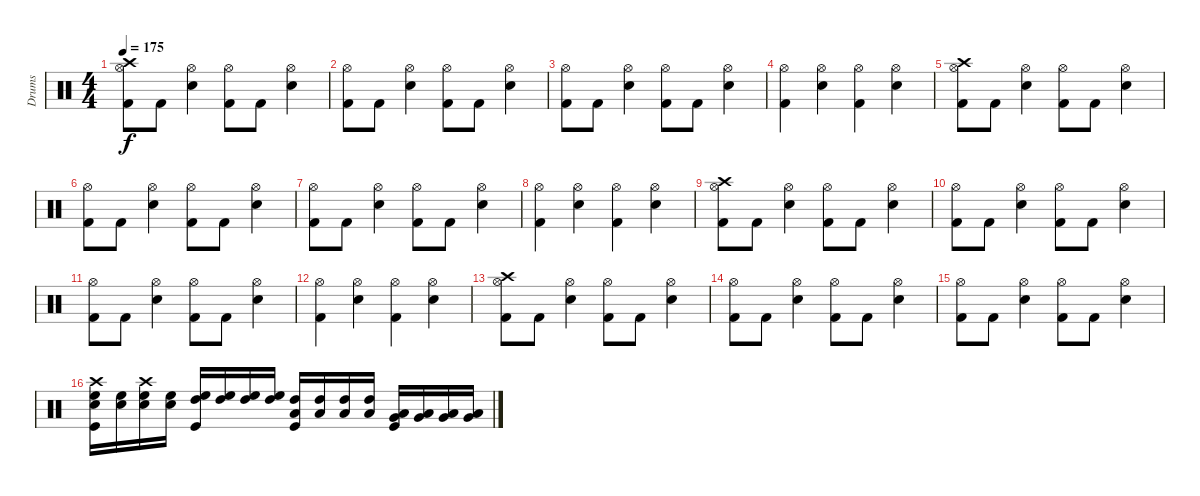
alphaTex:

\track ("Drums" "Drums") {instrument percussion}
\staff {score}
\articulation defaults
\ts (4 4)
\tempo 175
\clef neutral
\ks c
("Crash high (hit)" "Hi-Hat (open)" "Kick (hit) 2").8{dy f} "Kick (hit) 2".8 ("Hi-Hat (open)" "Electric Snare (hit)").4 ("Hi-Hat (open)" "Kick (hit) 2").8 "Kick (hit) 2".8 ("Hi-Hat (open)" "Electric Snare (hit)").4 |
("Hi-Hat (open)" "Kick (hit) 2").8 "Kick (hit) 2".8 ("Hi-Hat (open)" "Electric Snare (hit)").4 ("Hi-Hat (open)" "Kick (hit) 2").8 "Kick (hit) 2".8 ("Hi-Hat (open)" "Electric Snare (hit)").4 |
("Hi-Hat (open)" "Kick (hit) 2").8 "Kick (hit) 2".8 ("Hi-Hat (open)" "Electric Snare (hit)").4 ("Hi-Hat (open)" "Kick (hit) 2").8 "Kick (hit) 2".8 ("Hi-Hat (open)" "Electric Snare (hit)").4 |
("Hi-Hat (open)" "Kick (hit) 2").4 ("Hi-Hat (open)" "Electric Snare (hit)").4 ("Hi-Hat (open)" "Kick (hit) 2").4 ("Hi-Hat (open)" "Electric Snare (hit)").4 |
("Crash high (hit)" "Hi-Hat (open)" "Kick (hit) 2").8 "Kick (hit) 2".8 ("Hi-Hat (open)" "Electric Snare (hit)").4 ("Hi-Hat (open)" "Kick (hit) 2").8 "Kick (hit) 2".8 ("Hi-Hat (open)" "Electric Snare (hit)").4 |
("Hi-Hat (open)" "Kick (hit) 2").8 "Kick (hit) 2".8 ("Hi-Hat (open)" "Electric Snare (hit)").4 ("Hi-Hat (open)" "Kick (hit) 2").8 "Kick (hit) 2".8 ("Hi-Hat (open)" "Electric Snare (hit)").4 |
("Hi-Hat (open)" "Kick (hit) 2").8 "Kick (hit) 2".8 ("Hi-Hat (open)" "Electric Snare (hit)").4 ("Hi-Hat (open)" "Kick (hit) 2").8 "Kick (hit) 2".8 ("Hi-Hat (open)" "Electric Snare (hit)").4 |
("Hi-Hat (open)" "Kick (hit) 2").4 ("Hi-Hat (open)" "Electric Snare (hit)").4 ("Hi-Hat (open)" "Kick (hit) 2").4 ("Hi-Hat (open)" "Electric Snare (hit)").4 |
("Crash high (hit)" "Hi-Hat (open)" "Kick (hit) 2").8 "Kick (hit) 2".8 ("Hi-Hat (open)" "Electric Snare (hit)").4 ("Hi-Hat (open)" "Kick (hit) 2").8 "Kick (hit) 2".8 ("Hi-Hat (open)" "Electric Snare (hit)").4 |
("Hi-Hat (open)" "Kick (hit) 2").8 "Kick (hit) 2".8 ("Hi-Hat (open)" "Electric Snare (hit)").4 ("Hi-Hat (open)" "Kick (hit) 2").8 "Kick (hit) 2".8 ("Hi-Hat (open)" "Electric Snare (hit)").4 |
("Hi-Hat (open)" "Kick (hit) 2").8 "Kick (hit) 2".8 ("Hi-Hat (open)" "Electric Snare (hit)").4 ("Hi-Hat (open)" "Kick (hit) 2").8 "Kick (hit) 2".8 ("Hi-Hat (open)" "Electric Snare (hit)").4 |
("Hi-Hat (open)" "Kick (hit) 2").4 ("Hi-Hat (open)" "Electric Snare (hit)").4 ("Hi-Hat (open)" "Kick (hit) 2").4 ("Hi-Hat (open)" "Electric Snare (hit)").4 |
("Crash high (hit)" "Hi-Hat (open)" "Kick (hit) 2").8 "Kick (hit) 2".8 ("Hi-Hat (open)" "Electric Snare (hit)").4 ("Hi-Hat (open)" "Kick (hit) 2").8 "Kick (hit) 2".8 ("Hi-Hat (open)" "Electric Snare (hit)").4 |
("Hi-Hat (open)" "Kick (hit) 2").8 "Kick (hit) 2".8 ("Hi-Hat (open)" "Electric Snare (hit)").4 ("Hi-Hat (open)" "Kick (hit) 2").8 "Kick (hit) 2".8 ("Hi-Hat (open)" "Electric Snare (hit)").4 |
("Hi-Hat (open)" "Kick (hit) 2").8 "Kick (hit) 2".8 ("Hi-Hat (open)" "Electric Snare (hit)").4 ("Hi-Hat (open)" "Kick (hit) 2").8 "Kick (hit) 2".8 ("Hi-Hat (open)" "Electric Snare (hit)").4 |
("Kick (hit)" "Electric Snare (hit)" "Crash high (hit)" "High Floor Tom (hit)").16 ("Electric Snare (hit)" "High Floor Tom (hit)").16 ("Electric Snare (hit)" "Crash high (hit)" "High Floor Tom (hit)").16 ("Electric Snare (hit)" "High Floor Tom (hit)").16 ("Kick (hit)" "High Tom (hit)" "High Floor Tom (hit)").16 ("High Tom (hit)" "High Floor Tom (hit)").16 ("High Tom (hit)" "High Floor Tom (hit)").16 ("High Tom (hit)" "High Floor Tom (hit)").16 ("Kick (hit)" "Low Tom (hit)" "High Tom (hit)").16 ("Low Tom (hit)" "High Tom (hit)").16 ("Low Tom (hit)" "High Tom (hit)").16 ("Low Tom (hit)" "High Tom (hit)").16 ("Kick (hit)" "Very Low Tom (hit)" "Low Tom (hit)").16 ("Very Low Tom (hit)" "Low Tom (hit)").16 ("Very Low Tom (hit)" "Low Tom (hit)").16 ("Very Low Tom (hit)" "Low Tom (hit)").16
